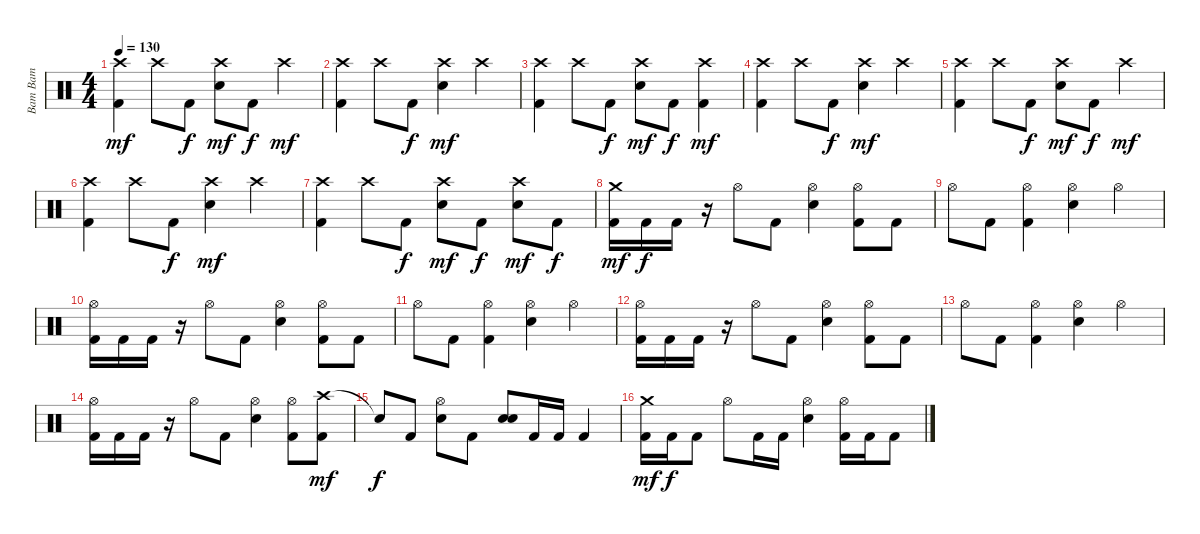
\track ("Bam Bam" "Bam Bam") {instrument percussion}
\staff {score}
\articulation defaults
\ts (4 4)
\tempo 130
\clef neutral
\ks c
("Crash high (hit)" "Kick (hit) 2").4{dy mf} "Crash high (hit)".8 "Kick (hit) 2".8{dy f} ("Crash high (hit)" "Electric Snare (hit)").8{dy mf} "Kick (hit) 2".8{dy f} "Crash high (hit)".4{dy mf} |
("Crash high (hit)" "Kick (hit) 2").4 "Crash high (hit)".8 "Kick (hit) 2".8{dy f} ("Crash high (hit)" "Electric Snare (hit)").4{dy mf} "Crash high (hit)".4 |
("Crash high (hit)" "Kick (hit) 2").4 "Crash high (hit)".8 "Kick (hit) 2".8{dy f} ("Crash high (hit)" "Electric Snare (hit)").8{dy mf} "Kick (hit) 2".8{dy f} ("Crash high (hit)" "Kick (hit) 2").4{dy mf} |
("Crash high (hit)" "Kick (hit) 2").4 "Crash high (hit)".8 "Kick (hit) 2".8{dy f} ("Crash high (hit)" "Electric Snare (hit)").4{dy mf} "Crash high (hit)".4 |
("Crash high (hit)" "Kick (hit) 2").4 "Crash high (hit)".8 "Kick (hit) 2".8{dy f} ("Crash high (hit)" "Electric Snare (hit)").8{dy mf} "Kick (hit) 2".8{dy f} "Crash high (hit)".4{dy mf} |
("Crash high (hit)" "Kick (hit) 2").4 "Crash high (hit)".8 "Kick (hit) 2".8{dy f} ("Crash high (hit)" "Electric Snare (hit)").4{dy mf} "Crash high (hit)".4 |
("Crash high (hit)" "Kick (hit) 2").4 "Crash high (hit)".8 "Kick (hit) 2".8{dy f} ("Crash high (hit)" "Electric Snare (hit)").8{dy mf} "Kick (hit) 2".8{dy f} ("Crash high (hit)" "Electric Snare (hit)").8{dy mf} "Kick (hit) 2".8{dy f} |
("Crash medium (hit)" "Kick (hit) 2").16{dy mf} "Kick (hit) 2".16{dy f} "Kick (hit) 2".16 r.16 "Hi-Hat (open)".8 "Kick (hit) 2".8 ("Hi-Hat (open)" "Electric Snare (hit)").4 ("Hi-Hat (open)" "Kick (hit) 2").8 "Kick (hit) 2".8 |
"Hi-Hat (open)".8 "Kick (hit) 2".8 ("Hi-Hat (open)" "Kick (hit) 2").4 ("Hi-Hat (open)" "Electric Snare (hit)").4 "Hi-Hat (open)".4 |
("Hi-Hat (open)" "Kick (hit) 2").16 "Kick (hit) 2".16 "Kick (hit) 2".16 r.16 "Hi-Hat (open)".8 "Kick (hit) 2".8 ("Hi-Hat (open)" "Electric Snare (hit)").4 ("Hi-Hat (open)" "Kick (hit) 2").8 "Kick (hit) 2".8 |
"Hi-Hat (open)".8 "Kick (hit) 2".8 ("Hi-Hat (open)" "Kick (hit) 2").4 ("Hi-Hat (open)" "Electric Snare (hit)").4 "Hi-Hat (open)".4 |
("Hi-Hat (open)" "Kick (hit) 2").16 "Kick (hit) 2".16 "Kick (hit) 2".16 r.16 "Hi-Hat (open)".8 "Kick (hit) 2".8 ("Hi-Hat (open)" "Electric Snare (hit)").4 ("Hi-Hat (open)" "Kick (hit) 2").8 "Kick (hit) 2".8 |
"Hi-Hat (open)".8 "Kick (hit) 2".8 ("Hi-Hat (open)" "Kick (hit) 2").4 ("Hi-Hat (open)" "Electric Snare (hit)").4 "Hi-Hat (open)".4 |
("Hi-Hat (open)" "Kick (hit) 2").16 "Kick (hit) 2".16 "Kick (hit) 2".16 r.16 "Hi-Hat (open)".8 "Kick (hit) 2".8 ("Hi-Hat (open)" "Electric Snare (hit)").4 ("Hi-Hat (open)" "Kick (hit) 2").8 ("Crash high (hit)" "Kick (hit) 2").8{dy mf} |
"Snare (hit)"{t}.8{dy f} "Kick (hit) 2".8 ("Hi-Hat (open)" "Electric Snare (hit)").8 "Kick (hit) 2".8 ("Electric Snare (hit)" "Electric Snare (hit)").8{bd 30} "Kick (hit) 2".16 "Kick (hit) 2".16 "Kick (hit) 2".4 |
("Crash medium (hit)" "Kick (hit) 2").16{dy mf} "Kick (hit) 2".16{dy f} "Kick (hit) 2".8 "Hi-Hat (open)".8 "Kick (hit) 2".16 "Kick (hit) 2".16 ("Hi-Hat (open)" "Electric Snare (hit)").4 ("Hi-Hat (open)" "Kick (hit) 2").16 "Kick (hit) 2".16 "Kick (hit) 2".8
